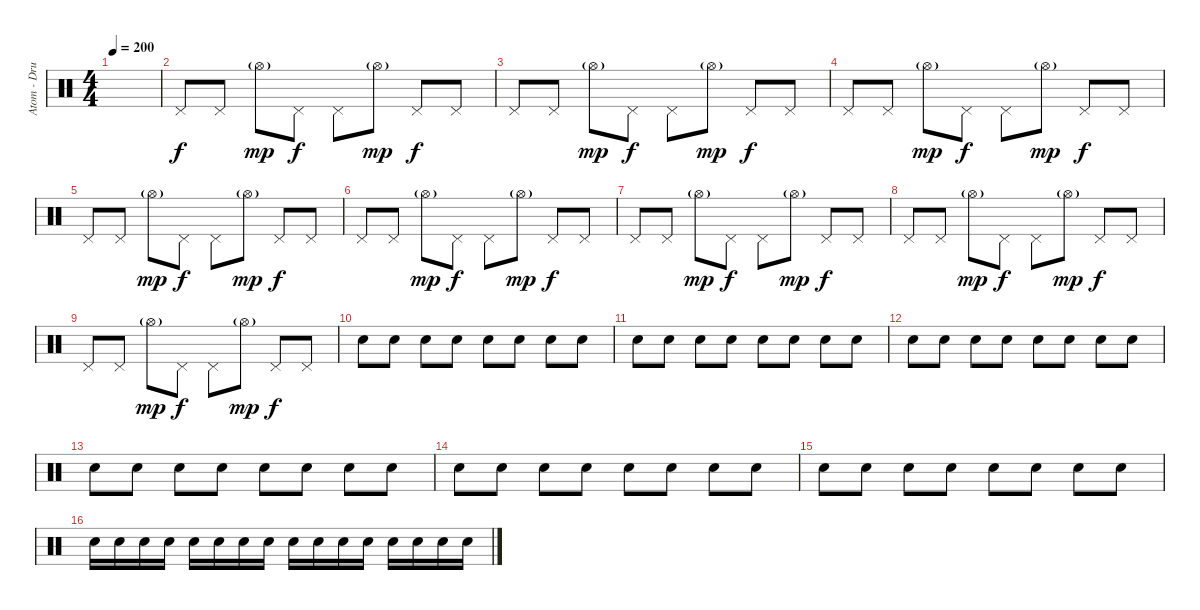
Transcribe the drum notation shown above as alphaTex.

\track ("Atom - Drums" "Atom - Dru") {instrument percussion}
\staff {score}
\articulation defaults
\ts (4 4)
\tempo 200
\clef neutral
\ks c
|
"Pedal Hi-Hat (hit)".8 "Pedal Hi-Hat (hit)".8 "Hi-Hat (open)"{g}.8{dy mp} "Pedal Hi-Hat (hit)".8{dy f} "Pedal Hi-Hat (hit)".8 "Hi-Hat (open)"{g}.8{dy mp} "Pedal Hi-Hat (hit)".8{dy f} "Pedal Hi-Hat (hit)".8 |
"Pedal Hi-Hat (hit)".8 "Pedal Hi-Hat (hit)".8 "Hi-Hat (open)"{g}.8{dy mp} "Pedal Hi-Hat (hit)".8{dy f} "Pedal Hi-Hat (hit)".8 "Hi-Hat (open)"{g}.8{dy mp} "Pedal Hi-Hat (hit)".8{dy f} "Pedal Hi-Hat (hit)".8 |
"Pedal Hi-Hat (hit)".8 "Pedal Hi-Hat (hit)".8 "Hi-Hat (open)"{g}.8{dy mp} "Pedal Hi-Hat (hit)".8{dy f} "Pedal Hi-Hat (hit)".8 "Hi-Hat (open)"{g}.8{dy mp} "Pedal Hi-Hat (hit)".8{dy f} "Pedal Hi-Hat (hit)".8 |
"Pedal Hi-Hat (hit)".8 "Pedal Hi-Hat (hit)".8 "Hi-Hat (open)"{g}.8{dy mp} "Pedal Hi-Hat (hit)".8{dy f} "Pedal Hi-Hat (hit)".8 "Hi-Hat (open)"{g}.8{dy mp} "Pedal Hi-Hat (hit)".8{dy f} "Pedal Hi-Hat (hit)".8 |
"Pedal Hi-Hat (hit)".8 "Pedal Hi-Hat (hit)".8 "Hi-Hat (open)"{g}.8{dy mp} "Pedal Hi-Hat (hit)".8{dy f} "Pedal Hi-Hat (hit)".8 "Hi-Hat (open)"{g}.8{dy mp} "Pedal Hi-Hat (hit)".8{dy f} "Pedal Hi-Hat (hit)".8 |
"Pedal Hi-Hat (hit)".8 "Pedal Hi-Hat (hit)".8 "Hi-Hat (open)"{g}.8{dy mp} "Pedal Hi-Hat (hit)".8{dy f} "Pedal Hi-Hat (hit)".8 "Hi-Hat (open)"{g}.8{dy mp} "Pedal Hi-Hat (hit)".8{dy f} "Pedal Hi-Hat (hit)".8 |
"Pedal Hi-Hat (hit)".8 "Pedal Hi-Hat (hit)".8 "Hi-Hat (open)"{g}.8{dy mp} "Pedal Hi-Hat (hit)".8{dy f} "Pedal Hi-Hat (hit)".8 "Hi-Hat (open)"{g}.8{dy mp} "Pedal Hi-Hat (hit)".8{dy f} "Pedal Hi-Hat (hit)".8 |
"Pedal Hi-Hat (hit)".8 "Pedal Hi-Hat (hit)".8 "Hi-Hat (open)"{g}.8{dy mp} "Pedal Hi-Hat (hit)".8{dy f} "Pedal Hi-Hat (hit)".8 "Hi-Hat (open)"{g}.8{dy mp} "Pedal Hi-Hat (hit)".8{dy f} "Pedal Hi-Hat (hit)".8 |
"Electric Snare (hit)".8{volume 5} "Electric Snare (hit)".8 "Electric Snare (hit)".8 "Electric Snare (hit)".8 "Electric Snare (hit)".8 "Electric Snare (hit)".8 "Electric Snare (hit)".8 "Electric Snare (hit)".8 |
"Electric Snare (hit)".8{volume 6} "Electric Snare (hit)".8 "Electric Snare (hit)".8 "Electric Snare (hit)".8 "Electric Snare (hit)".8 "Electric Snare (hit)".8 "Electric Snare (hit)".8 "Electric Snare (hit)".8 |
"Electric Snare (hit)".8{volume 7} "Electric Snare (hit)".8 "Electric Snare (hit)".8 "Electric Snare (hit)".8 "Electric Snare (hit)".8 "Electric Snare (hit)".8 "Electric Snare (hit)".8 "Electric Snare (hit)".8 |
"Electric Snare (hit)".8{volume 8} "Electric Snare (hit)".8 "Electric Snare (hit)".8 "Electric Snare (hit)".8 "Electric Snare (hit)".8 "Electric Snare (hit)".8 "Electric Snare (hit)".8 "Electric Snare (hit)".8 |
"Electric Snare (hit)".8{volume 9} "Electric Snare (hit)".8 "Electric Snare (hit)".8 "Electric Snare (hit)".8 "Electric Snare (hit)".8 "Electric Snare (hit)".8 "Electric Snare (hit)".8 "Electric Snare (hit)".8 |
"Electric Snare (hit)".8{volume 10} "Electric Snare (hit)".8 "Electric Snare (hit)".8 "Electric Snare (hit)".8 "Electric Snare (hit)".8 "Electric Snare (hit)".8 "Electric Snare (hit)".8 "Electric Snare (hit)".8 |
"Electric Snare (hit)".16{volume 11} "Electric Snare (hit)".16 "Electric Snare (hit)".16 "Electric Snare (hit)".16 "Electric Snare (hit)".16 "Electric Snare (hit)".16 "Electric Snare (hit)".16 "Electric Snare (hit)".16 "Electric Snare (hit)".16 "Electric Snare (hit)".16 "Electric Snare (hit)".16 "Electric Snare (hit)".16 "Electric Snare (hit)".16 "Electric Snare (hit)".16 "Electric Snare (hit)".16 "Electric Snare (hit)".16
